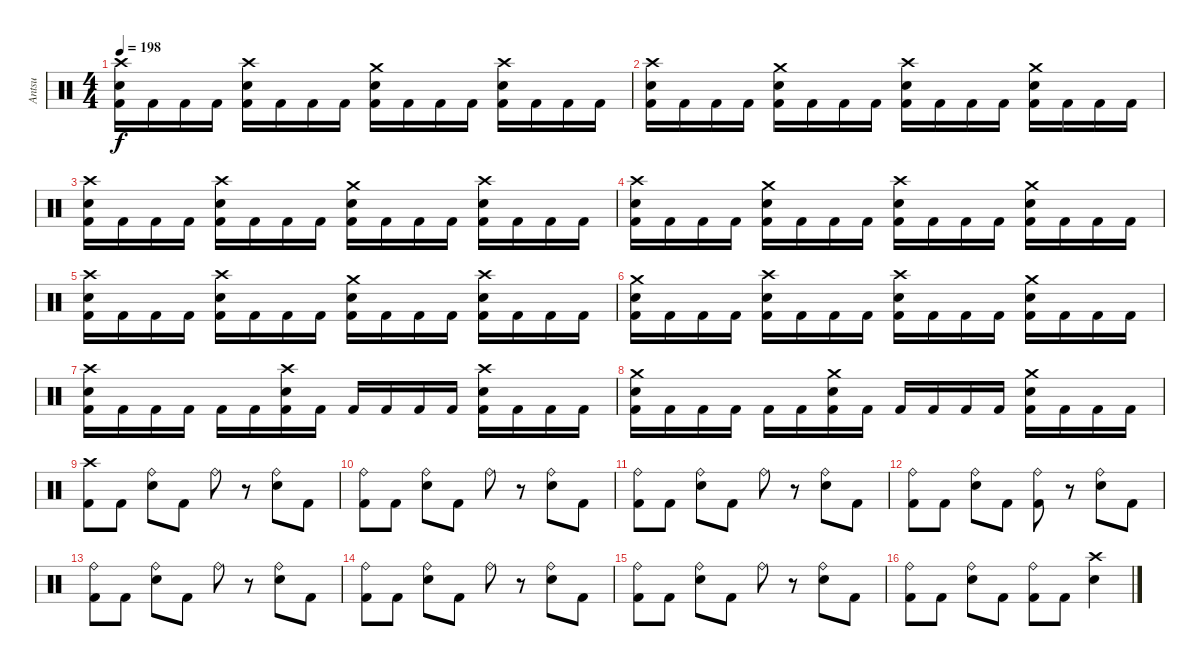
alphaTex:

\track ("Antsu" "Antsu") {instrument percussion}
\staff {score}
\articulation defaults
\ts (4 4)
\tempo 198
\clef neutral
\ks c
("Crash high (hit)" "Snare (hit) 2" "Kick (hit) 2").16{dy f} "Kick (hit) 2".16 "Kick (hit) 2".16 "Kick (hit) 2".16 ("Crash high (hit)" "Snare (hit) 2" "Kick (hit) 2").16 "Kick (hit) 2".16 "Kick (hit) 2".16 "Kick (hit) 2".16 ("Crash medium (hit)" "Snare (hit) 2" "Kick (hit) 2").16 "Kick (hit) 2".16 "Kick (hit) 2".16 "Kick (hit) 2".16 ("Crash high (hit)" "Snare (hit) 2" "Kick (hit) 2").16 "Kick (hit) 2".16 "Kick (hit) 2".16 "Kick (hit) 2".16 |
("Crash high (hit)" "Snare (hit) 2" "Kick (hit) 2").16 "Kick (hit) 2".16 "Kick (hit) 2".16 "Kick (hit) 2".16 ("Crash medium (hit)" "Snare (hit) 2" "Kick (hit) 2").16 "Kick (hit) 2".16 "Kick (hit) 2".16 "Kick (hit) 2".16 ("Crash high (hit)" "Snare (hit) 2" "Kick (hit) 2").16 "Kick (hit) 2".16 "Kick (hit) 2".16 "Kick (hit) 2".16 ("Crash medium (hit)" "Snare (hit) 2" "Kick (hit) 2").16 "Kick (hit) 2".16 "Kick (hit) 2".16 "Kick (hit) 2".16 |
("Crash high (hit)" "Snare (hit) 2" "Kick (hit) 2").16 "Kick (hit) 2".16 "Kick (hit) 2".16 "Kick (hit) 2".16 ("Crash high (hit)" "Snare (hit) 2" "Kick (hit) 2").16 "Kick (hit) 2".16 "Kick (hit) 2".16 "Kick (hit) 2".16 ("Crash medium (hit)" "Snare (hit) 2" "Kick (hit) 2").16 "Kick (hit) 2".16 "Kick (hit) 2".16 "Kick (hit) 2".16 ("Crash high (hit)" "Snare (hit) 2" "Kick (hit) 2").16 "Kick (hit) 2".16 "Kick (hit) 2".16 "Kick (hit) 2".16 |
("Crash high (hit)" "Snare (hit) 2" "Kick (hit) 2").16 "Kick (hit) 2".16 "Kick (hit) 2".16 "Kick (hit) 2".16 ("Crash medium (hit)" "Snare (hit) 2" "Kick (hit) 2").16 "Kick (hit) 2".16 "Kick (hit) 2".16 "Kick (hit) 2".16 ("Crash high (hit)" "Snare (hit) 2" "Kick (hit) 2").16 "Kick (hit) 2".16 "Kick (hit) 2".16 "Kick (hit) 2".16 ("Crash medium (hit)" "Snare (hit) 2" "Kick (hit) 2").16 "Kick (hit) 2".16 "Kick (hit) 2".16 "Kick (hit) 2".16 |
("Crash high (hit)" "Snare (hit) 2" "Kick (hit) 2").16 "Kick (hit) 2".16 "Kick (hit) 2".16 "Kick (hit) 2".16 ("Crash high (hit)" "Snare (hit) 2" "Kick (hit) 2").16 "Kick (hit) 2".16 "Kick (hit) 2".16 "Kick (hit) 2".16 ("Crash medium (hit)" "Snare (hit) 2" "Kick (hit) 2").16 "Kick (hit) 2".16 "Kick (hit) 2".16 "Kick (hit) 2".16 ("Crash high (hit)" "Snare (hit) 2" "Kick (hit) 2").16 "Kick (hit) 2".16 "Kick (hit) 2".16 "Kick (hit) 2".16 |
("Crash medium (hit)" "Snare (hit) 2" "Kick (hit) 2").16 "Kick (hit) 2".16 "Kick (hit) 2".16 "Kick (hit) 2".16 ("Crash high (hit)" "Snare (hit) 2" "Kick (hit) 2").16 "Kick (hit) 2".16 "Kick (hit) 2".16 "Kick (hit) 2".16 ("Crash high (hit)" "Snare (hit) 2" "Kick (hit) 2").16 "Kick (hit) 2".16 "Kick (hit) 2".16 "Kick (hit) 2".16 ("Crash medium (hit)" "Snare (hit) 2" "Kick (hit) 2").16 "Kick (hit) 2".16 "Kick (hit) 2".16 "Kick (hit) 2".16 |
("Crash high (hit)" "Snare (hit) 2" "Kick (hit) 2").16 "Kick (hit) 2".16 "Kick (hit) 2".16 "Kick (hit) 2".16 "Kick (hit) 2".16 "Kick (hit) 2".16 ("Crash high (hit)" "Snare (hit) 2" "Kick (hit) 2").16 "Kick (hit) 2".16 "Kick (hit) 2".16 "Kick (hit) 2".16 "Kick (hit) 2".16 "Kick (hit) 2".16 ("Crash high (hit)" "Snare (hit) 2" "Kick (hit) 2").16 "Kick (hit) 2".16 "Kick (hit) 2".16 "Kick (hit) 2".16 |
("Crash medium (hit)" "Snare (hit) 2" "Kick (hit) 2").16 "Kick (hit) 2".16 "Kick (hit) 2".16 "Kick (hit) 2".16 "Kick (hit) 2".16 "Kick (hit) 2".16 ("Crash medium (hit)" "Snare (hit) 2" "Kick (hit) 2").16 "Kick (hit) 2".16 "Kick (hit) 2".16 "Kick (hit) 2".16 "Kick (hit) 2".16 "Kick (hit) 2".16 ("Crash medium (hit)" "Snare (hit) 2" "Kick (hit) 2").16 "Kick (hit) 2".16 "Kick (hit) 2".16 "Kick (hit) 2".16 |
("Crash high (hit)" "Kick (hit) 2").8 "Kick (hit) 2".8 ("Ride (bell)" "Snare (hit) 2").8 "Kick (hit) 2".8 "Ride (bell)".8 r.8 ("Ride (bell)" "Snare (hit) 2").8 "Kick (hit) 2".8 |
("Ride (bell)" "Kick (hit) 2").8 "Kick (hit) 2".8 ("Ride (bell)" "Snare (hit) 2").8 "Kick (hit) 2".8 "Ride (bell)".8 r.8 ("Ride (bell)" "Snare (hit) 2").8 "Kick (hit) 2".8 |
("Ride (bell)" "Kick (hit) 2").8 "Kick (hit) 2".8 ("Ride (bell)" "Snare (hit) 2").8 "Kick (hit) 2".8 "Ride (bell)".8 r.8 ("Ride (bell)" "Snare (hit) 2").8 "Kick (hit) 2".8 |
("Ride (bell)" "Kick (hit) 2").8 "Kick (hit) 2".8 ("Ride (bell)" "Snare (hit) 2").8 "Kick (hit) 2".8 ("Ride (bell)" "Kick (hit) 2").8 r.8 ("Ride (bell)" "Snare (hit) 2").8 "Kick (hit) 2".8 |
("Ride (bell)" "Kick (hit) 2").8 "Kick (hit) 2".8 ("Ride (bell)" "Snare (hit) 2").8 "Kick (hit) 2".8 "Ride (bell)".8 r.8 ("Ride (bell)" "Snare (hit) 2").8 "Kick (hit) 2".8 |
("Ride (bell)" "Kick (hit) 2").8 "Kick (hit) 2".8 ("Ride (bell)" "Snare (hit) 2").8 "Kick (hit) 2".8 "Ride (bell)".8 r.8 ("Ride (bell)" "Snare (hit) 2").8 "Kick (hit) 2".8 |
("Ride (bell)" "Kick (hit) 2").8 "Kick (hit) 2".8 ("Ride (bell)" "Snare (hit) 2").8 "Kick (hit) 2".8 "Ride (bell)".8 r.8 ("Ride (bell)" "Snare (hit) 2").8 "Kick (hit) 2".8 |
("Ride (bell)" "Kick (hit) 2").8 "Kick (hit) 2".8 ("Ride (bell)" "Snare (hit) 2").8 "Kick (hit) 2".8 ("Ride (bell)" "Kick (hit) 2").8 "Kick (hit) 2".8 ("Crash high (hit)" "Snare (hit) 2").4
